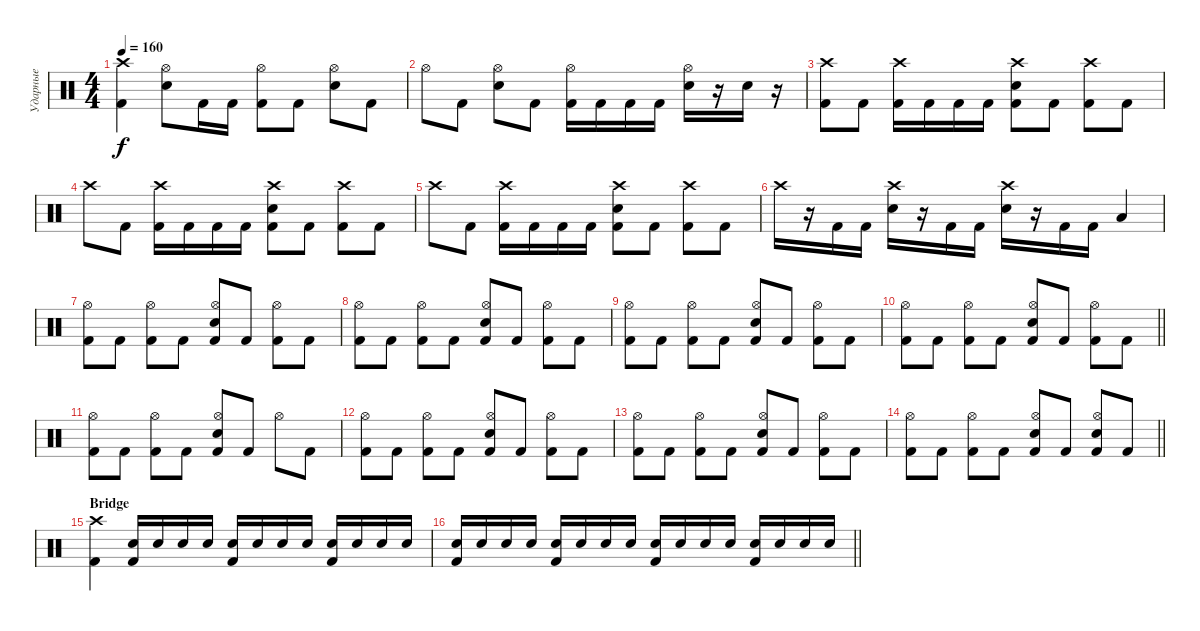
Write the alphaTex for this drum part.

\track ("Ударные" "Ударные") {instrument percussion}
\staff {score}
\articulation defaults
\ts (4 4)
\tempo 160
\clef neutral
\ks c
("Crash high (hit)" "Kick (hit) 2").4{dy f} ("Hi-Hat (open)" "Electric Snare (hit)").8 "Kick (hit) 2".16 "Kick (hit) 2".16 ("Hi-Hat (open)" "Kick (hit) 2").8 "Kick (hit) 2".8 ("Hi-Hat (open)" "Electric Snare (hit)").8 "Kick (hit) 2".8 |
"Hi-Hat (open)".8 "Kick (hit) 2".8 ("Hi-Hat (open)" "Electric Snare (hit)").8 "Kick (hit) 2".8 ("Hi-Hat (open)" "Kick (hit) 2").16 "Kick (hit) 2".16 "Kick (hit) 2".16 "Kick (hit) 2".16 ("Hi-Hat (open)" "Electric Snare (hit)").16 r.16 "Electric Snare (hit)".16 r.16 |
("Crash high (hit)" "Kick (hit) 2").8 "Kick (hit) 2".8 ("Crash high (hit)" "Kick (hit) 2").16 "Kick (hit) 2".16 "Kick (hit) 2".16 "Kick (hit) 2".16 ("Crash high (hit)" "Electric Snare (hit)" "Kick (hit) 2").8 "Kick (hit) 2".8 ("Crash high (hit)" "Kick (hit) 2").8 "Kick (hit) 2".8 |
"Crash high (hit)".8 "Kick (hit) 2".8 ("Crash high (hit)" "Kick (hit) 2").16 "Kick (hit) 2".16 "Kick (hit) 2".16 "Kick (hit) 2".16 ("Crash high (hit)" "Electric Snare (hit)" "Kick (hit) 2").8 "Kick (hit) 2".8 ("Crash high (hit)" "Kick (hit) 2").8 "Kick (hit) 2".8 |
"Crash high (hit)".8 "Kick (hit) 2".8 ("Crash high (hit)" "Kick (hit) 2").16 "Kick (hit) 2".16 "Kick (hit) 2".16 "Kick (hit) 2".16 ("Crash high (hit)" "Electric Snare (hit)" "Kick (hit) 2").8 "Kick (hit) 2".8 ("Crash high (hit)" "Kick (hit) 2").8 "Kick (hit) 2".8 |
"Crash high (hit)".16 r.16 "Kick (hit) 2".16 "Kick (hit) 2".16 ("Crash high (hit)" "Electric Snare (hit)").16 r.16 "Kick (hit) 2".16 "Kick (hit) 2".16 ("Crash high (hit)" "Electric Snare (hit)").16 r.16 "Kick (hit) 2".16 "Kick (hit) 2".16 "Low Tom (hit)".4 |
("Hi-Hat (open)" "Kick (hit) 2").8 "Kick (hit) 2".8 ("Hi-Hat (open)" "Kick (hit) 2").8 "Kick (hit) 2".8 ("Hi-Hat (open)" "Electric Snare (hit)" "Kick (hit) 2").8 "Kick (hit) 2".8 ("Hi-Hat (open)" "Kick (hit) 2").8 "Kick (hit) 2".8 |
("Hi-Hat (open)" "Kick (hit) 2").8 "Kick (hit) 2".8 ("Hi-Hat (open)" "Kick (hit) 2").8 "Kick (hit) 2".8 ("Hi-Hat (open)" "Electric Snare (hit)" "Kick (hit) 2").8 "Kick (hit) 2".8 ("Hi-Hat (open)" "Kick (hit) 2").8 "Kick (hit) 2".8 |
("Hi-Hat (open)" "Kick (hit) 2").8 "Kick (hit) 2".8 ("Hi-Hat (open)" "Kick (hit) 2").8 "Kick (hit) 2".8 ("Hi-Hat (open)" "Electric Snare (hit)" "Kick (hit) 2").8 "Kick (hit) 2".8 ("Hi-Hat (open)" "Kick (hit) 2").8 "Kick (hit) 2".8 |
\barLineRight lightlight
("Hi-Hat (open)" "Kick (hit) 2").8 "Kick (hit) 2".8 ("Hi-Hat (open)" "Kick (hit) 2").8 "Kick (hit) 2".8 ("Hi-Hat (open)" "Electric Snare (hit)" "Kick (hit) 2").8 "Kick (hit) 2".8 ("Hi-Hat (open)" "Kick (hit) 2").8 "Kick (hit) 2".8 |
("Hi-Hat (open)" "Kick (hit) 2").8 "Kick (hit) 2".8 ("Hi-Hat (open)" "Kick (hit) 2").8 "Kick (hit) 2".8 ("Hi-Hat (open)" "Electric Snare (hit)" "Kick (hit) 2").8 "Kick (hit) 2".8 "Hi-Hat (open)".8 "Kick (hit) 2".8 |
("Hi-Hat (open)" "Kick (hit) 2").8 "Kick (hit) 2".8 ("Hi-Hat (open)" "Kick (hit) 2").8 "Kick (hit) 2".8 ("Hi-Hat (open)" "Electric Snare (hit)" "Kick (hit) 2").8 "Kick (hit) 2".8 ("Hi-Hat (open)" "Kick (hit) 2").8 "Kick (hit) 2".8 |
("Hi-Hat (open)" "Kick (hit) 2").8 "Kick (hit) 2".8 ("Hi-Hat (open)" "Kick (hit) 2").8 "Kick (hit) 2".8 ("Hi-Hat (open)" "Electric Snare (hit)" "Kick (hit) 2").8 "Kick (hit) 2".8 ("Hi-Hat (open)" "Kick (hit) 2").8 "Kick (hit) 2".8 |
\barLineRight lightlight
("Hi-Hat (open)" "Kick (hit) 2").8 "Kick (hit) 2".8 ("Hi-Hat (open)" "Kick (hit) 2").8 "Kick (hit) 2".8 ("Hi-Hat (open)" "Electric Snare (hit)" "Kick (hit) 2").8 "Kick (hit) 2".8 ("Hi-Hat (open)" "Electric Snare (hit)" "Kick (hit) 2").8 "Kick (hit) 2".8 |
\section ("" "Bridge")
("Crash high (hit)" "Kick (hit) 2").4 ("Electric Snare (hit)" "Kick (hit) 2").16 "Electric Snare (hit)".16 "Electric Snare (hit)".16 "Electric Snare (hit)".16 ("Electric Snare (hit)" "Kick (hit) 2").16 "Electric Snare (hit)".16 "Electric Snare (hit)".16 "Electric Snare (hit)".16 ("Electric Snare (hit)" "Kick (hit) 2").16 "Electric Snare (hit)".16 "Electric Snare (hit)".16 "Electric Snare (hit)".16 |
\barLineRight lightlight
("Electric Snare (hit)" "Kick (hit) 2").16 "Electric Snare (hit)".16 "Electric Snare (hit)".16 "Electric Snare (hit)".16 ("Electric Snare (hit)" "Kick (hit) 2").16 "Electric Snare (hit)".16 "Electric Snare (hit)".16 "Electric Snare (hit)".16 ("Electric Snare (hit)" "Kick (hit) 2").16 "Electric Snare (hit)".16 "Electric Snare (hit)".16 "Electric Snare (hit)".16 ("Electric Snare (hit)" "Kick (hit) 2").16 "Electric Snare (hit)".16 "Electric Snare (hit)".16 "Electric Snare (hit)".16
